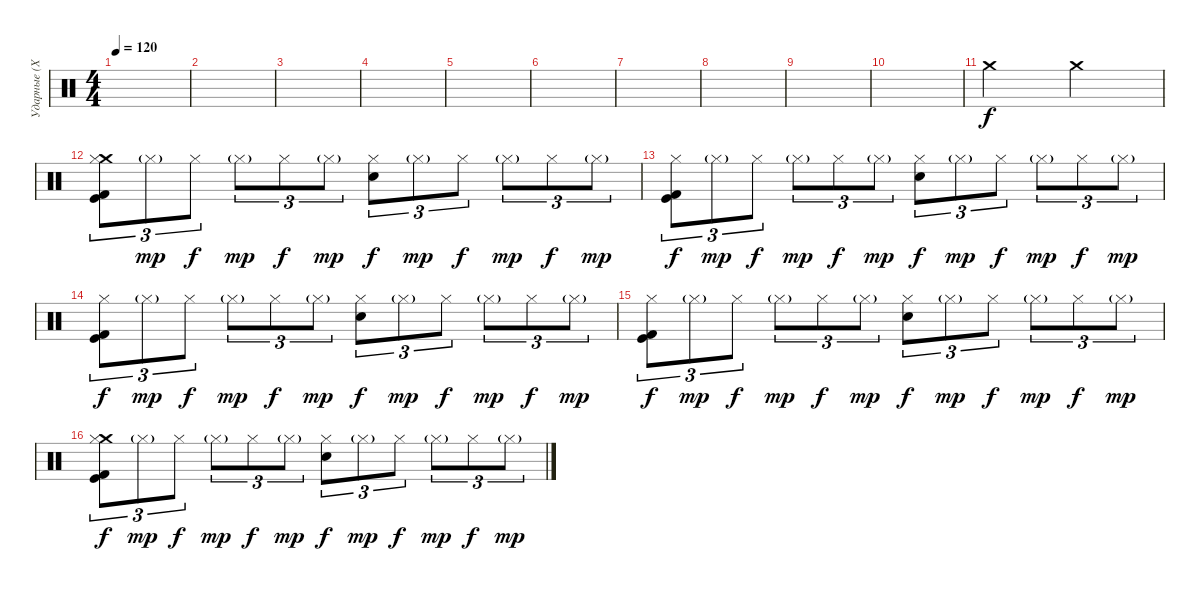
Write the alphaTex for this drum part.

\track ("Ударные (Хеллхаммер)" "Ударные (Х") {instrument percussion}
\staff {score}
\articulation defaults
\ts (4 4)
\tempo 120
\clef neutral
\ks c
|
|
|
|
|
|
|
|
|
|
"Crash medium (hit)".2 "Crash medium (hit)".2 |
("Crash medium (hit)" "Hi-Hat (closed)" "Kick (hit) 2" "Kick (hit)").8{tu (3 2)} "Hi-Hat (closed)"{g}.8{tu (3 2) dy mp} "Hi-Hat (closed)".8{tu (3 2) dy f} "Hi-Hat (closed)"{g}.8{tu (3 2) dy mp} "Hi-Hat (closed)".8{tu (3 2) dy f} "Hi-Hat (closed)"{g}.8{tu (3 2) dy mp} ("Electric Snare (hit)" "Hi-Hat (closed)").8{tu (3 2) dy f} "Hi-Hat (closed)"{g}.8{tu (3 2) dy mp} "Hi-Hat (closed)".8{tu (3 2) dy f} "Hi-Hat (closed)"{g}.8{tu (3 2) dy mp} "Hi-Hat (closed)".8{tu (3 2) dy f} "Hi-Hat (closed)"{g}.8{tu (3 2) dy mp} |
("Hi-Hat (closed)" "Kick (hit) 2" "Kick (hit)").8{tu (3 2) dy f} "Hi-Hat (closed)"{g}.8{tu (3 2) dy mp} "Hi-Hat (closed)".8{tu (3 2) dy f} "Hi-Hat (closed)"{g}.8{tu (3 2) dy mp} "Hi-Hat (closed)".8{tu (3 2) dy f} "Hi-Hat (closed)"{g}.8{tu (3 2) dy mp} ("Electric Snare (hit)" "Hi-Hat (closed)").8{tu (3 2) dy f} "Hi-Hat (closed)"{g}.8{tu (3 2) dy mp} "Hi-Hat (closed)".8{tu (3 2) dy f} "Hi-Hat (closed)"{g}.8{tu (3 2) dy mp} "Hi-Hat (closed)".8{tu (3 2) dy f} "Hi-Hat (closed)"{g}.8{tu (3 2) dy mp} |
("Hi-Hat (closed)" "Kick (hit) 2" "Kick (hit)").8{tu (3 2) dy f} "Hi-Hat (closed)"{g}.8{tu (3 2) dy mp} "Hi-Hat (closed)".8{tu (3 2) dy f} "Hi-Hat (closed)"{g}.8{tu (3 2) dy mp} "Hi-Hat (closed)".8{tu (3 2) dy f} "Hi-Hat (closed)"{g}.8{tu (3 2) dy mp} ("Electric Snare (hit)" "Hi-Hat (closed)").8{tu (3 2) dy f} "Hi-Hat (closed)"{g}.8{tu (3 2) dy mp} "Hi-Hat (closed)".8{tu (3 2) dy f} "Hi-Hat (closed)"{g}.8{tu (3 2) dy mp} "Hi-Hat (closed)".8{tu (3 2) dy f} "Hi-Hat (closed)"{g}.8{tu (3 2) dy mp} |
("Hi-Hat (closed)" "Kick (hit) 2" "Kick (hit)").8{tu (3 2) dy f} "Hi-Hat (closed)"{g}.8{tu (3 2) dy mp} "Hi-Hat (closed)".8{tu (3 2) dy f} "Hi-Hat (closed)"{g}.8{tu (3 2) dy mp} "Hi-Hat (closed)".8{tu (3 2) dy f} "Hi-Hat (closed)"{g}.8{tu (3 2) dy mp} ("Electric Snare (hit)" "Hi-Hat (closed)").8{tu (3 2) dy f} "Hi-Hat (closed)"{g}.8{tu (3 2) dy mp} "Hi-Hat (closed)".8{tu (3 2) dy f} "Hi-Hat (closed)"{g}.8{tu (3 2) dy mp} "Hi-Hat (closed)".8{tu (3 2) dy f} "Hi-Hat (closed)"{g}.8{tu (3 2) dy mp} |
("Crash medium (hit)" "Hi-Hat (closed)" "Kick (hit) 2" "Kick (hit)").8{tu (3 2) dy f} "Hi-Hat (closed)"{g}.8{tu (3 2) dy mp} "Hi-Hat (closed)".8{tu (3 2) dy f} "Hi-Hat (closed)"{g}.8{tu (3 2) dy mp} "Hi-Hat (closed)".8{tu (3 2) dy f} "Hi-Hat (closed)"{g}.8{tu (3 2) dy mp} ("Electric Snare (hit)" "Hi-Hat (closed)").8{tu (3 2) dy f} "Hi-Hat (closed)"{g}.8{tu (3 2) dy mp} "Hi-Hat (closed)".8{tu (3 2) dy f} "Hi-Hat (closed)"{g}.8{tu (3 2) dy mp} "Hi-Hat (closed)".8{tu (3 2) dy f} "Hi-Hat (closed)"{g}.8{tu (3 2) dy mp}
